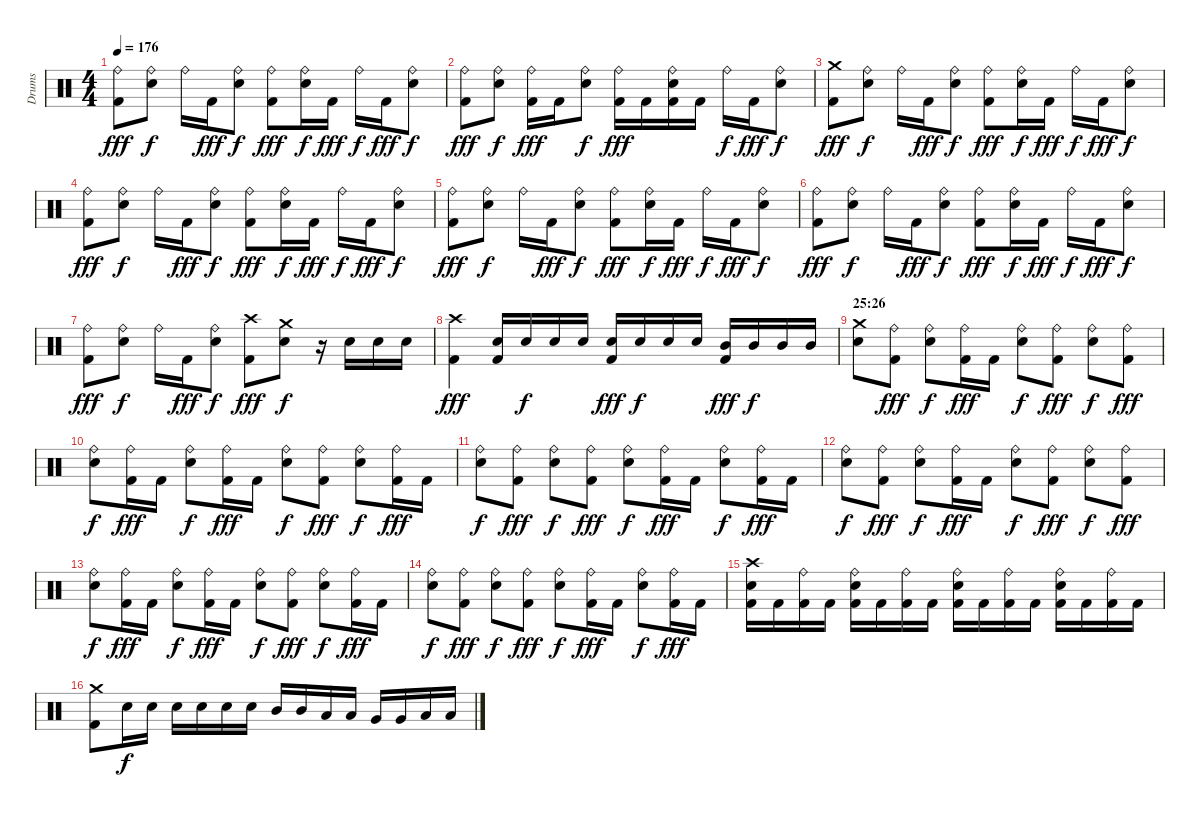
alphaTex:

\track ("Drums" "Drums") {instrument percussion}
\staff {score}
\articulation defaults
\ts (4 4)
\tempo 176
\clef neutral
\ks c
("Ride (bell)" "Kick (hit) 2").8{dy fff} ("Ride (bell)" "Snare (hit) 2").8{dy f} "Ride (bell)".16 "Kick (hit) 2".16{dy fff} ("Ride (bell)" "Snare (hit) 2").8{dy f} ("Ride (bell)" "Kick (hit) 2").8{dy fff} ("Ride (bell)" "Snare (hit) 2").16{dy f} "Kick (hit) 2".16{dy fff} "Ride (bell)".16{dy f} "Kick (hit) 2".16{dy fff} ("Ride (bell)" "Snare (hit) 2").8{dy f} |
("Ride (bell)" "Kick (hit) 2").8{dy fff} ("Ride (bell)" "Snare (hit) 2").8{dy f} ("Ride (bell)" "Kick (hit) 2").16{dy fff} "Kick (hit) 2".16 ("Ride (bell)" "Snare (hit) 2").8{dy f} ("Ride (bell)" "Kick (hit) 2").16{dy fff} "Kick (hit) 2".16 ("Ride (bell)" "Snare (hit) 2" "Kick (hit) 2").16 "Kick (hit) 2".16 "Ride (bell)".16{dy f} "Kick (hit) 2".16{dy fff} ("Ride (bell)" "Snare (hit) 2").8{dy f} |
("Crash medium (hit)" "Kick (hit) 2").8{dy fff} ("Ride (bell)" "Snare (hit) 2").8{dy f} "Ride (bell)".16 "Kick (hit) 2".16{dy fff} ("Ride (bell)" "Snare (hit) 2").8{dy f} ("Ride (bell)" "Kick (hit) 2").8{dy fff} ("Ride (bell)" "Snare (hit) 2").16{dy f} "Kick (hit) 2".16{dy fff} "Ride (bell)".16{dy f} "Kick (hit) 2".16{dy fff} ("Ride (bell)" "Snare (hit) 2").8{dy f} |
("Ride (bell)" "Kick (hit) 2").8{dy fff} ("Ride (bell)" "Snare (hit) 2").8{dy f} "Ride (bell)".16 "Kick (hit) 2".16{dy fff} ("Ride (bell)" "Snare (hit) 2").8{dy f} ("Ride (bell)" "Kick (hit) 2").8{dy fff} ("Ride (bell)" "Snare (hit) 2").16{dy f} "Kick (hit) 2".16{dy fff} "Ride (bell)".16{dy f} "Kick (hit) 2".16{dy fff} ("Ride (bell)" "Snare (hit) 2").8{dy f} |
("Ride (bell)" "Kick (hit) 2").8{dy fff} ("Ride (bell)" "Snare (hit) 2").8{dy f} "Ride (bell)".16 "Kick (hit) 2".16{dy fff} ("Ride (bell)" "Snare (hit) 2").8{dy f} ("Ride (bell)" "Kick (hit) 2").8{dy fff} ("Ride (bell)" "Snare (hit) 2").16{dy f} "Kick (hit) 2".16{dy fff} "Ride (bell)".16{dy f} "Kick (hit) 2".16{dy fff} ("Ride (bell)" "Snare (hit) 2").8{dy f} |
("Ride (bell)" "Kick (hit) 2").8{dy fff} ("Ride (bell)" "Snare (hit) 2").8{dy f} "Ride (bell)".16 "Kick (hit) 2".16{dy fff} ("Ride (bell)" "Snare (hit) 2").8{dy f} ("Ride (bell)" "Kick (hit) 2").8{dy fff} ("Ride (bell)" "Snare (hit) 2").16{dy f} "Kick (hit) 2".16{dy fff} "Ride (bell)".16{dy f} "Kick (hit) 2".16{dy fff} ("Ride (bell)" "Snare (hit) 2").8{dy f} |
("Ride (bell)" "Kick (hit) 2").8{dy fff} ("Ride (bell)" "Snare (hit) 2").8{dy f} "Ride (bell)".16 "Kick (hit) 2".16{dy fff} ("Ride (bell)" "Snare (hit) 2").8{dy f} ("Crash high (hit)" "Kick (hit) 2").8{dy fff} ("Crash medium (hit)" "Snare (hit) 2").8{dy f} r.16 "Snare (hit) 2".16 "Snare (hit) 2".16 "Snare (hit) 2".16 |
("Crash high (hit)" "Kick (hit) 2").4{dy fff} ("Snare (hit) 2" "Kick (hit) 2").16 "Snare (hit) 2".16{dy f} "Snare (hit) 2".16 "Snare (hit) 2".16 ("Snare (hit) 2" "Kick (hit) 2").16{dy fff} "Snare (hit) 2".16{dy f} "Snare (hit) 2".16 "Snare (hit) 2".16 ("Mid Tom (hit)" "Kick (hit) 2").16{dy fff} "Mid Tom (hit)".16{dy f} "Mid Tom (hit)".16 "Mid Tom (hit)".16 |
\section ("" "25:26")
("Crash medium (hit)" "Snare (hit) 2").8 ("Ride (bell)" "Kick (hit) 2").8{dy fff} ("Ride (bell)" "Snare (hit) 2").8{dy f} ("Ride (bell)" "Kick (hit) 2").16{dy fff} "Kick (hit) 2".16 ("Ride (bell)" "Snare (hit) 2").8{dy f} ("Ride (bell)" "Kick (hit) 2").8{dy fff} ("Ride (bell)" "Snare (hit) 2").8{dy f} ("Ride (bell)" "Kick (hit) 2").8{dy fff} |
("Ride (bell)" "Snare (hit) 2").8{dy f} ("Ride (bell)" "Kick (hit) 2").16{dy fff} "Kick (hit) 2".16 ("Ride (bell)" "Snare (hit) 2").8{dy f} ("Ride (bell)" "Kick (hit) 2").16{dy fff} "Kick (hit) 2".16 ("Ride (bell)" "Snare (hit) 2").8{dy f} ("Ride (bell)" "Kick (hit) 2").8{dy fff} ("Ride (bell)" "Snare (hit) 2").8{dy f} ("Ride (bell)" "Kick (hit) 2").16{dy fff} "Kick (hit) 2".16 |
("Ride (bell)" "Snare (hit) 2").8{dy f} ("Ride (bell)" "Kick (hit) 2").8{dy fff} ("Ride (bell)" "Snare (hit) 2").8{dy f} ("Ride (bell)" "Kick (hit) 2").8{dy fff} ("Ride (bell)" "Snare (hit) 2").8{dy f} ("Ride (bell)" "Kick (hit) 2").16{dy fff} "Kick (hit) 2".16 ("Ride (bell)" "Snare (hit) 2").8{dy f} ("Ride (bell)" "Kick (hit) 2").16{dy fff} "Kick (hit) 2".16 |
("Ride (bell)" "Snare (hit) 2").8{dy f} ("Ride (bell)" "Kick (hit) 2").8{dy fff} ("Ride (bell)" "Snare (hit) 2").8{dy f} ("Ride (bell)" "Kick (hit) 2").16{dy fff} "Kick (hit) 2".16 ("Ride (bell)" "Snare (hit) 2").8{dy f} ("Ride (bell)" "Kick (hit) 2").8{dy fff} ("Ride (bell)" "Snare (hit) 2").8{dy f} ("Ride (bell)" "Kick (hit) 2").8{dy fff} |
("Ride (bell)" "Snare (hit) 2").8{dy f} ("Ride (bell)" "Kick (hit) 2").16{dy fff} "Kick (hit) 2".16 ("Ride (bell)" "Snare (hit) 2").8{dy f} ("Ride (bell)" "Kick (hit) 2").16{dy fff} "Kick (hit) 2".16 ("Ride (bell)" "Snare (hit) 2").8{dy f} ("Ride (bell)" "Kick (hit) 2").8{dy fff} ("Ride (bell)" "Snare (hit) 2").8{dy f} ("Ride (bell)" "Kick (hit) 2").16{dy fff} "Kick (hit) 2".16 |
("Ride (bell)" "Snare (hit) 2").8{dy f} ("Ride (bell)" "Kick (hit) 2").8{dy fff} ("Ride (bell)" "Snare (hit) 2").8{dy f} ("Ride (bell)" "Kick (hit) 2").8{dy fff} ("Ride (bell)" "Snare (hit) 2").8{dy f} ("Ride (bell)" "Kick (hit) 2").16{dy fff} "Kick (hit) 2".16 ("Ride (bell)" "Snare (hit) 2").8{dy f} ("Ride (bell)" "Kick (hit) 2").16{dy fff} "Kick (hit) 2".16 |
("Crash high (hit)" "Snare (hit) 2" "Kick (hit) 2").16 "Kick (hit) 2".16 ("Ride (bell)" "Kick (hit) 2").16 "Kick (hit) 2".16 ("Ride (bell)" "Snare (hit) 2" "Kick (hit) 2").16 "Kick (hit) 2".16 ("Ride (bell)" "Kick (hit) 2").16 "Kick (hit) 2".16 ("Ride (bell)" "Snare (hit) 2" "Kick (hit) 2").16 "Kick (hit) 2".16 ("Ride (bell)" "Kick (hit) 2").16 "Kick (hit) 2".16 ("Ride (bell)" "Snare (hit) 2" "Kick (hit) 2").16 "Kick (hit) 2".16 ("Ride (bell)" "Kick (hit) 2").16 "Kick (hit) 2".16 |
("Crash medium (hit)" "Kick (hit) 2").8 "Snare (hit) 2".16{dy f} "Snare (hit) 2".16 "Snare (hit) 2".16 "Snare (hit) 2".16 "Snare (hit) 2".16 "Snare (hit) 2".16 "Mid Tom (hit)".16 "Mid Tom (hit)".16 "Low Tom (hit)".16 "Low Tom (hit)".16 "Very Low Tom (hit)".16 "Very Low Tom (hit)".16 "Low Floor Tom (hit)".16 "Low Floor Tom (hit)".16
